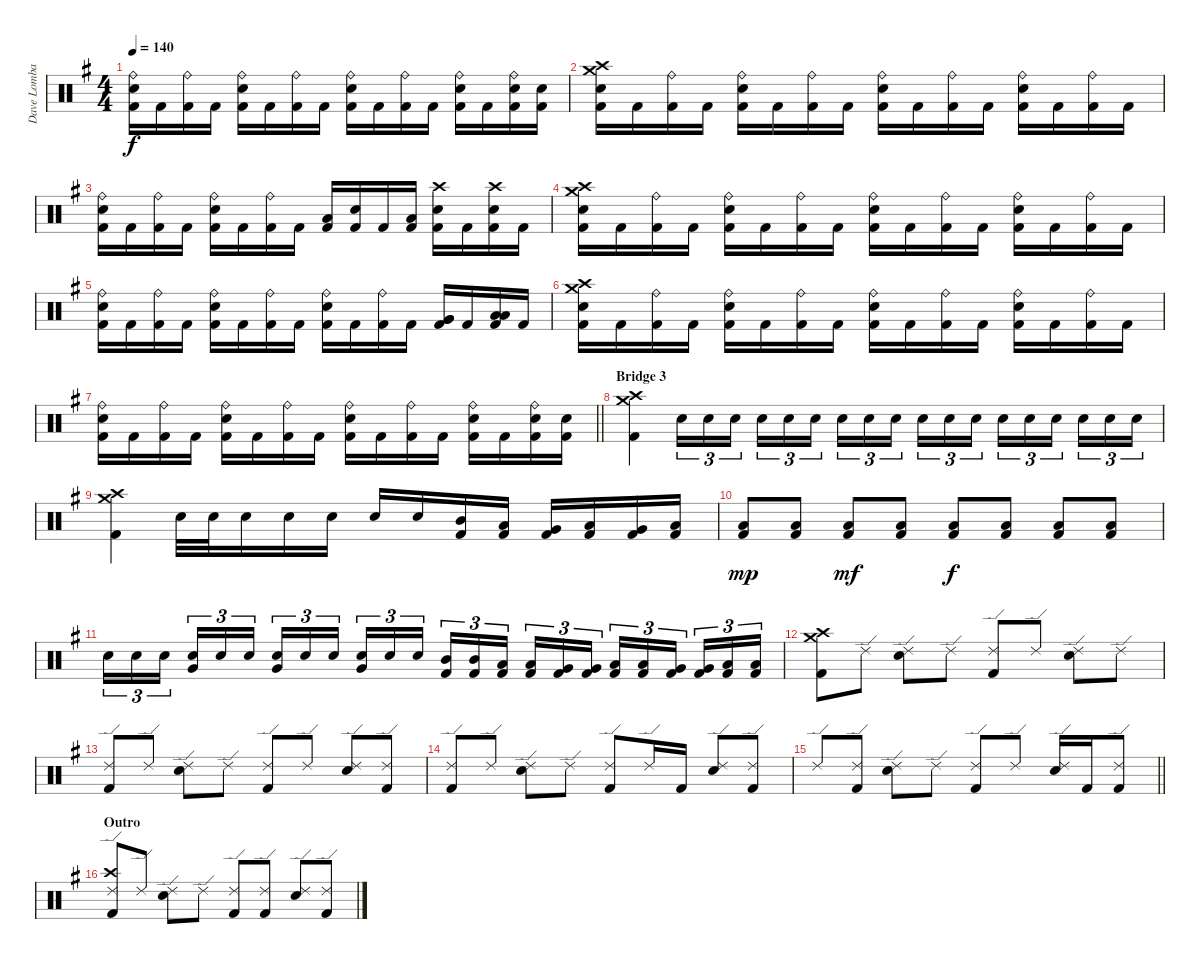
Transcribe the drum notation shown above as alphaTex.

\track ("Dave Lombardo" "Dave Lomba") {instrument percussion}
\staff {score}
\articulation defaults
\ts (4 4)
\tempo 140
\clef neutral
\ks g
("Ride (bell)" "Electric Snare (hit)" "Kick (hit) 2").16{dy f} "Kick (hit) 2".16 ("Ride (bell)" "Kick (hit) 2").16 "Kick (hit) 2".16 ("Ride (bell)" "Electric Snare (hit)" "Kick (hit) 2").16 "Kick (hit) 2".16 ("Ride (bell)" "Kick (hit) 2").16 "Kick (hit) 2".16 ("Ride (bell)" "Electric Snare (hit)" "Kick (hit) 2").16 "Kick (hit) 2".16 ("Ride (bell)" "Kick (hit) 2").16 "Kick (hit) 2".16 ("Ride (bell)" "Electric Snare (hit)" "Kick (hit) 2").16 "Kick (hit) 2".16 ("Ride (bell)" "Electric Snare (hit)" "Kick (hit) 2").16 ("Electric Snare (hit)" "Kick (hit) 2").16 |
("Crash high (hit)" "Crash medium (hit)" "Electric Snare (hit)" "Kick (hit) 2").16 "Kick (hit) 2".16 ("Ride (bell)" "Kick (hit) 2").16 "Kick (hit) 2".16 ("Ride (bell)" "Electric Snare (hit)" "Kick (hit) 2").16 "Kick (hit) 2".16 ("Ride (bell)" "Kick (hit) 2").16 "Kick (hit) 2".16 ("Ride (bell)" "Electric Snare (hit)" "Kick (hit) 2").16 "Kick (hit) 2".16 ("Ride (bell)" "Kick (hit) 2").16 "Kick (hit) 2".16 ("Ride (bell)" "Electric Snare (hit)" "Kick (hit) 2").16 "Kick (hit) 2".16 ("Ride (bell)" "Kick (hit) 2").16 "Kick (hit) 2".16 |
("Ride (bell)" "Electric Snare (hit)" "Kick (hit) 2").16 "Kick (hit) 2".16 ("Ride (bell)" "Kick (hit) 2").16 "Kick (hit) 2".16 ("Ride (bell)" "Electric Snare (hit)" "Kick (hit) 2").16 "Kick (hit) 2".16 ("Ride (bell)" "Kick (hit) 2").16 "Kick (hit) 2".16 ("Low Floor Tom (hit)" "Kick (hit) 2").16 ("Electric Snare (hit)" "Kick (hit) 2").16 "Kick (hit) 2".16 ("Low Floor Tom (hit)" "Kick (hit) 2").16 ("Crash high (hit)" "Electric Snare (hit)" "Kick (hit) 2").16 "Kick (hit) 2".16 ("Crash high (hit)" "Electric Snare (hit)" "Kick (hit) 2").16 "Kick (hit) 2".16 |
("Crash high (hit)" "Crash medium (hit)" "Electric Snare (hit)" "Kick (hit) 2").16 "Kick (hit) 2".16 ("Ride (bell)" "Kick (hit) 2").16 "Kick (hit) 2".16 ("Ride (bell)" "Electric Snare (hit)" "Kick (hit) 2").16 "Kick (hit) 2".16 ("Ride (bell)" "Kick (hit) 2").16 "Kick (hit) 2".16 ("Ride (bell)" "Electric Snare (hit)" "Kick (hit) 2").16 "Kick (hit) 2".16 ("Ride (bell)" "Kick (hit) 2").16 "Kick (hit) 2".16 ("Ride (bell)" "Electric Snare (hit)" "Kick (hit) 2").16 "Kick (hit) 2".16 ("Ride (bell)" "Kick (hit) 2").16 "Kick (hit) 2".16 |
("Ride (bell)" "Electric Snare (hit)" "Kick (hit) 2").16 "Kick (hit) 2".16 ("Ride (bell)" "Kick (hit) 2").16 "Kick (hit) 2".16 ("Ride (bell)" "Electric Snare (hit)" "Kick (hit) 2").16 "Kick (hit) 2".16 ("Ride (bell)" "Kick (hit) 2").16 "Kick (hit) 2".16 ("Ride (bell)" "Electric Snare (hit)" "Kick (hit) 2").16 "Kick (hit) 2".16 ("Ride (bell)" "Kick (hit) 2").16 "Kick (hit) 2".16 ("Very Low Tom (hit)" "Very Low Tom (hit)" "Kick (hit) 2").16 "Kick (hit) 2".16 ("Low Floor Tom (hit)" "Low Floor Tom (hit)" "Kick (hit) 2").16 "Kick (hit) 2".16 |
("Crash high (hit)" "Crash medium (hit)" "Electric Snare (hit)" "Kick (hit) 2").16 "Kick (hit) 2".16 ("Ride (bell)" "Kick (hit) 2").16 "Kick (hit) 2".16 ("Ride (bell)" "Electric Snare (hit)" "Kick (hit) 2").16 "Kick (hit) 2".16 ("Ride (bell)" "Kick (hit) 2").16 "Kick (hit) 2".16 ("Ride (bell)" "Electric Snare (hit)" "Kick (hit) 2").16 "Kick (hit) 2".16 ("Ride (bell)" "Kick (hit) 2").16 "Kick (hit) 2".16 ("Ride (bell)" "Electric Snare (hit)" "Kick (hit) 2").16 "Kick (hit) 2".16 ("Ride (bell)" "Kick (hit) 2").16 "Kick (hit) 2".16 |
\barLineRight lightlight
("Ride (bell)" "Electric Snare (hit)" "Kick (hit) 2").16 "Kick (hit) 2".16 ("Ride (bell)" "Kick (hit) 2").16 "Kick (hit) 2".16 ("Ride (bell)" "Electric Snare (hit)" "Kick (hit) 2").16 "Kick (hit) 2".16 ("Ride (bell)" "Kick (hit) 2").16 "Kick (hit) 2".16 ("Ride (bell)" "Electric Snare (hit)" "Kick (hit) 2").16 "Kick (hit) 2".16 ("Ride (bell)" "Kick (hit) 2").16 "Kick (hit) 2".16 ("Ride (bell)" "Electric Snare (hit)" "Kick (hit) 2").16 "Kick (hit) 2".16 ("Ride (bell)" "Electric Snare (hit)" "Kick (hit) 2").16 ("Electric Snare (hit)" "Kick (hit) 2").16 |
\section ("" "Bridge 3")
("Crash high (hit)" "Crash medium (hit)" "Kick (hit) 2").4 "Electric Snare (hit)".16{tu (3 2)} "Electric Snare (hit)".16{tu (3 2)} "Electric Snare (hit)".16{tu (3 2) beam splitsecondary} "Electric Snare (hit)".16{tu (3 2)} "Electric Snare (hit)".16{tu (3 2)} "Electric Snare (hit)".16{tu (3 2)} "Electric Snare (hit)".16{tu (3 2)} "Electric Snare (hit)".16{tu (3 2)} "Electric Snare (hit)".16{tu (3 2) beam splitsecondary} "Electric Snare (hit)".16{tu (3 2)} "Electric Snare (hit)".16{tu (3 2)} "Electric Snare (hit)".16{tu (3 2)} "Electric Snare (hit)".16{tu (3 2)} "Electric Snare (hit)".16{tu (3 2)} "Electric Snare (hit)".16{tu (3 2) beam splitsecondary} "Electric Snare (hit)".16{tu (3 2)} "Electric Snare (hit)".16{tu (3 2)} "Electric Snare (hit)".16{tu (3 2)} |
("Crash high (hit)" "Crash medium (hit)" "Kick (hit) 2").4 "Electric Snare (hit)".32 "Electric Snare (hit)".32 "Electric Snare (hit)".16 "Electric Snare (hit)".16 "Electric Snare (hit)".16 "Electric Snare (hit)".16 "Electric Snare (hit)".16 ("Mid Tom (hit)" "Kick (hit) 2").16 ("Low Tom (hit)" "Kick (hit) 2").16 ("Very Low Tom (hit)" "Kick (hit) 2").16 ("Low Tom (hit)" "Kick (hit) 2").16 ("Very Low Tom (hit)" "Kick (hit) 2").16 ("Low Floor Tom (hit)" "Kick (hit) 2").16 |
("Low Floor Tom (hit)" "Kick (hit) 2").8{dy mp} ("Low Floor Tom (hit)" "Kick (hit) 2").8 ("Low Floor Tom (hit)" "Kick (hit) 2").8{dy mf} ("Low Floor Tom (hit)" "Kick (hit) 2").8 ("Low Floor Tom (hit)" "Kick (hit) 2").8{dy f} ("Low Floor Tom (hit)" "Kick (hit) 2").8 ("Low Floor Tom (hit)" "Kick (hit) 2").8 ("Low Floor Tom (hit)" "Kick (hit) 2").8 |
"Electric Snare (hit)".16{tu (3 2)} "Electric Snare (hit)".16{tu (3 2)} "Electric Snare (hit)".16{tu (3 2) beam splitsecondary} ("Electric Snare (hit)" "Very Low Tom (hit)").16{tu (3 2)} "Electric Snare (hit)".16{tu (3 2)} "Electric Snare (hit)".16{tu (3 2)} ("Electric Snare (hit)" "Very Low Tom (hit)").16{tu (3 2)} "Electric Snare (hit)".16{tu (3 2)} "Electric Snare (hit)".16{tu (3 2) beam splitsecondary} ("Electric Snare (hit)" "Very Low Tom (hit)").16{tu (3 2)} "Electric Snare (hit)".16{tu (3 2)} "Electric Snare (hit)".16{tu (3 2)} ("Mid Tom (hit)" "Kick (hit) 2").16{tu (3 2)} ("Mid Tom (hit)" "Kick (hit) 2").16{tu (3 2)} ("Low Tom (hit)" "Kick (hit) 2").16{tu (3 2) beam splitsecondary} ("Low Tom (hit)" "Kick (hit) 2").16{tu (3 2)} ("Very Low Tom (hit)" "Kick (hit) 2").16{tu (3 2)} ("Very Low Tom (hit)" "Kick (hit) 2").16{tu (3 2)} ("Low Tom (hit)" "Kick (hit) 2").16{tu (3 2)} ("Low Tom (hit)" "Kick (hit) 2").16{tu (3 2)} ("Very Low Tom (hit)" "Kick (hit) 2").16{tu (3 2) beam splitsecondary} ("Very Low Tom (hit)" "Kick (hit) 2").16{tu (3 2)} ("Low Floor Tom (hit)" "Kick (hit) 2").16{tu (3 2)} ("Low Floor Tom (hit)" "Kick (hit) 2").16{tu (3 2)} |
("Crash high (hit)" "Crash medium (hit)" "Kick (hit) 2").8 "Ride (edge) 2".8 ("Ride (edge) 2" "Electric Snare (hit)").8 "Ride (edge) 2".8 ("Ride (edge) 2" "Kick (hit) 2").8 "Ride (edge) 2".8 ("Ride (edge) 2" "Electric Snare (hit)").8 "Ride (edge) 2".8 |
("Ride (edge) 2" "Kick (hit) 2").8 "Ride (edge) 2".8 ("Ride (edge) 2" "Electric Snare (hit)").8 "Ride (edge) 2".8 ("Ride (edge) 2" "Kick (hit) 2").8 "Ride (edge) 2".8 ("Ride (edge) 2" "Electric Snare (hit)").8 ("Ride (edge) 2" "Kick (hit) 2").8 |
("Ride (edge) 2" "Kick (hit) 2").8 "Ride (edge) 2".8 ("Ride (edge) 2" "Electric Snare (hit)").8 "Ride (edge) 2".8 ("Ride (edge) 2" "Kick (hit) 2").8 "Ride (edge) 2".16 "Kick (hit) 2".16 ("Ride (edge) 2" "Electric Snare (hit)").8 ("Ride (edge) 2" "Kick (hit) 2").8 |
\barLineRight lightlight "Ride (edge) 2".8
("Ride (edge) 2" "Kick (hit) 2").8 ("Ride (edge) 2" "Electric Snare (hit)").8 "Ride (edge) 2".8 ("Ride (edge) 2" "Kick (hit) 2").8 "Ride (edge) 2".8 ("Ride (edge) 2" "Electric Snare (hit)").16 "Kick (hit) 2".16 ("Ride (edge) 2" "Kick (hit) 2").8 |
\section ("" "Outro")
("Crash high (hit)" "Ride (edge) 2" "Kick (hit) 2").8 "Ride (edge) 2".8 ("Ride (edge) 2" "Electric Snare (hit)").8 "Ride (edge) 2".8 ("Ride (edge) 2" "Kick (hit) 2").8 ("Ride (edge) 2" "Kick (hit) 2").8 ("Ride (edge) 2" "Electric Snare (hit)").8 ("Ride (edge) 2" "Kick (hit) 2").8
